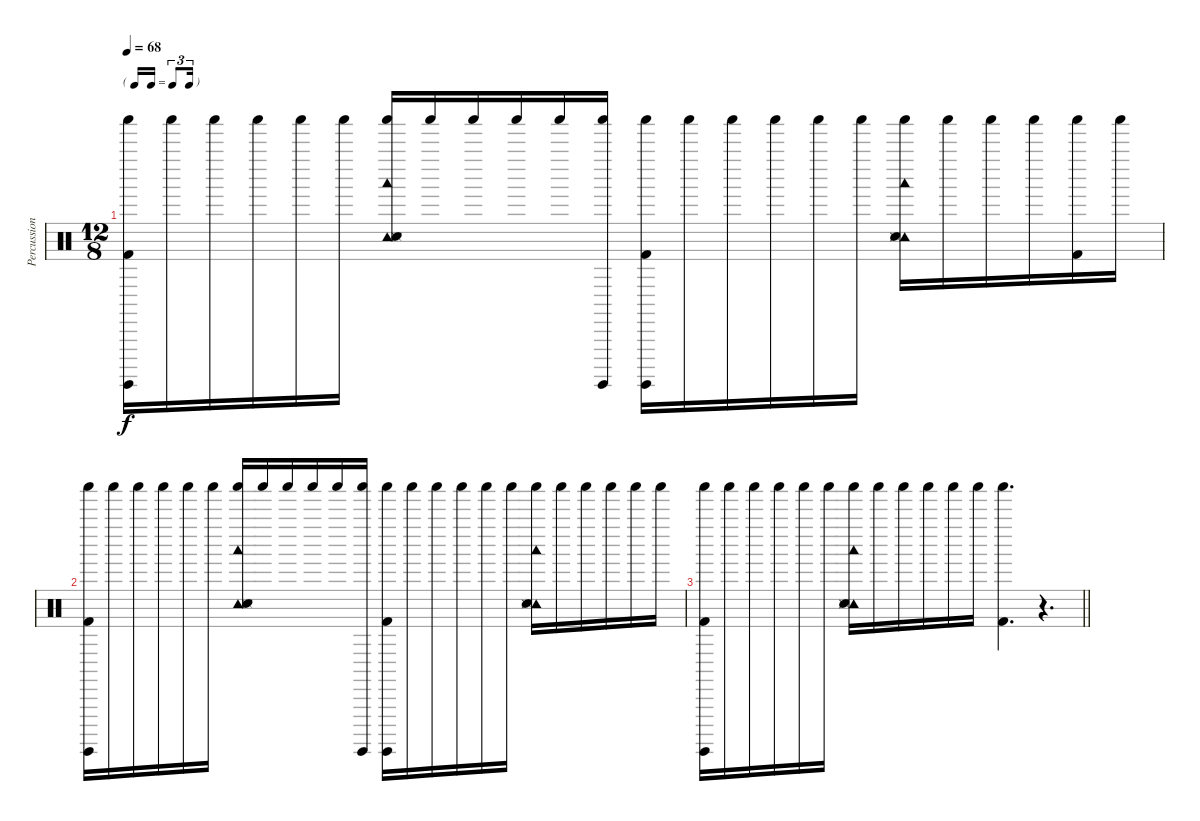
\track ("Percussion" "Percussion") {instrument percussion}
\staff {score}
\articulation defaults
\ts (12 8)
\tf triplet16th
\tempo 68
\clef neutral
\ks c
("Shaker (hit)" "Surdo (hit)" "Kick (hit) 2").16{dy f} "Shaker (hit)".16 "Shaker (hit)".16 "Shaker (hit)".16 "Shaker (hit)".16 "Shaker (hit)".16 ("Tambourine (hit)" "Shaker (hit)" "Hand Clap (hit)" "Woodblock low (hit)" "Snare (side stick) 3").16 "Shaker (hit)".16 "Shaker (hit)".16 "Shaker (hit)".16 "Shaker (hit)".16 ("Shaker (hit)" "Surdo (hit)").16 ("Shaker (hit)" "Surdo (hit)" "Kick (hit) 2").16 "Shaker (hit)".16 "Shaker (hit)".16 "Shaker (hit)".16 "Shaker (hit)".16 "Shaker (hit)".16 ("Tambourine (hit)" "Shaker (hit)" "Hand Clap (hit)" "Woodblock low (hit)" "Snare (side stick) 3").16 "Shaker (hit)".16 "Shaker (hit)".16 "Shaker (hit)".16 ("Shaker (hit)" "Kick (hit) 2").16 "Shaker (hit)".16 |
("Shaker (hit)" "Surdo (hit)" "Kick (hit) 2").16 "Shaker (hit)".16 "Shaker (hit)".16 "Shaker (hit)".16 "Shaker (hit)".16 "Shaker (hit)".16 ("Tambourine (hit)" "Shaker (hit)" "Hand Clap (hit)" "Woodblock low (hit)" "Snare (side stick) 3").16 "Shaker (hit)".16 "Shaker (hit)".16 "Shaker (hit)".16 "Shaker (hit)".16 ("Shaker (hit)" "Surdo (hit)").16 ("Shaker (hit)" "Surdo (hit)" "Kick (hit) 2").16 "Shaker (hit)".16 "Shaker (hit)".16 "Shaker (hit)".16 "Shaker (hit)".16 "Shaker (hit)".16 ("Tambourine (hit)" "Shaker (hit)" "Hand Clap (hit)" "Woodblock low (hit)" "Snare (side stick) 3").16 "Shaker (hit)".16 "Shaker (hit)".16 "Shaker (hit)".16 "Shaker (hit)".16 "Shaker (hit)".16 |
\barLineRight lightlight
("Shaker (hit)" "Surdo (hit)" "Kick (hit) 2").16 "Shaker (hit)".16 "Shaker (hit)".16 "Shaker (hit)".16 "Shaker (hit)".16 "Shaker (hit)".16 ("Tambourine (hit)" "Shaker (hit)" "Hand Clap (hit)" "Woodblock low (hit)" "Snare (side stick) 3").16 "Shaker (hit)".16 "Shaker (hit)".16 "Shaker (hit)".16 "Shaker (hit)".16 "Shaker (hit)".16 ("Shaker (hit)" "Kick (hit) 2").4{d} r.4{d}
